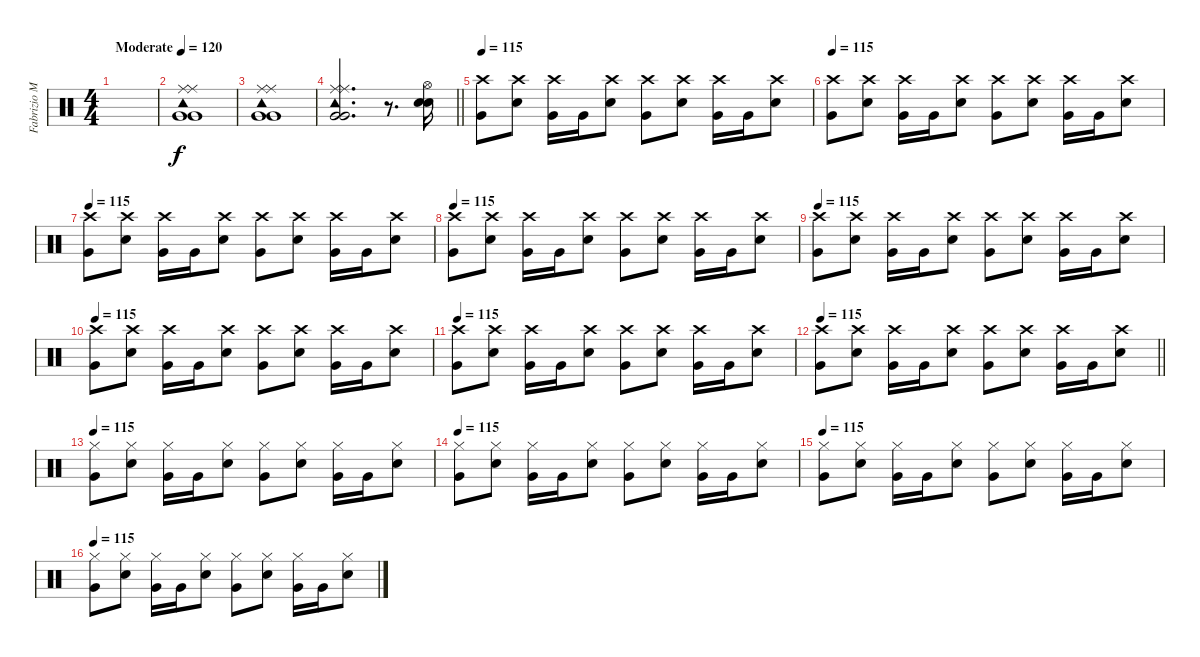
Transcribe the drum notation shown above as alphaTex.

\track ("Fabrizio Moretti" "Fabrizio M") {instrument percussion}
\staff {score}
\articulation defaults
\ts (4 4)
\tempo (120 "Moderate")
\clef neutral
\ks c
|
("Tambourine (hit)" "Ride (middle)" "Ride (middle)" "Very Low Tom (hit)" "Very Low Tom (hit)").1 |
("Tambourine (hit)" "Ride (middle)" "Ride (middle)" "Very Low Tom (hit)" "Very Low Tom (hit)").1 |
\barLineRight lightlight
("Tambourine (hit)" "Ride (middle)" "Ride (middle)" "Very Low Tom (hit)" "Very Low Tom (hit)").2{d} r.8{d} ("Hi-Hat (open)" "Snare (hit) 2" "Snare (hit) 2").16 |
\tempo 115
("Very Low Tom (hit)" "Crash high (hit)").8 ("Electric Snare (hit)" "Crash high (hit)").8 ("Very Low Tom (hit)" "Crash high (hit)").16 "Very Low Tom (hit)".16 ("Electric Snare (hit)" "Crash high (hit)").8 ("Very Low Tom (hit)" "Crash high (hit)").8 ("Electric Snare (hit)" "Crash high (hit)").8 ("Very Low Tom (hit)" "Crash high (hit)").16 "Very Low Tom (hit)".16 ("Electric Snare (hit)" "Crash high (hit)").8 |
\tempo 115
("Very Low Tom (hit)" "Crash high (hit)").8 ("Electric Snare (hit)" "Crash high (hit)").8 ("Very Low Tom (hit)" "Crash high (hit)").16 "Very Low Tom (hit)".16 ("Electric Snare (hit)" "Crash high (hit)").8 ("Very Low Tom (hit)" "Crash high (hit)").8 ("Electric Snare (hit)" "Crash high (hit)").8 ("Very Low Tom (hit)" "Crash high (hit)").16 "Very Low Tom (hit)".16 ("Electric Snare (hit)" "Crash high (hit)").8 |
\tempo 115
("Very Low Tom (hit)" "Crash high (hit)").8 ("Electric Snare (hit)" "Crash high (hit)").8 ("Very Low Tom (hit)" "Crash high (hit)").16 "Very Low Tom (hit)".16 ("Electric Snare (hit)" "Crash high (hit)").8 ("Very Low Tom (hit)" "Crash high (hit)").8 ("Electric Snare (hit)" "Crash high (hit)").8 ("Very Low Tom (hit)" "Crash high (hit)").16 "Very Low Tom (hit)".16 ("Electric Snare (hit)" "Crash high (hit)").8 |
\tempo 115
("Very Low Tom (hit)" "Crash high (hit)").8 ("Electric Snare (hit)" "Crash high (hit)").8 ("Very Low Tom (hit)" "Crash high (hit)").16 "Very Low Tom (hit)".16 ("Electric Snare (hit)" "Crash high (hit)").8 ("Very Low Tom (hit)" "Crash high (hit)").8 ("Electric Snare (hit)" "Crash high (hit)").8 ("Very Low Tom (hit)" "Crash high (hit)").16 "Very Low Tom (hit)".16 ("Electric Snare (hit)" "Crash high (hit)").8 |
\tempo 115
("Very Low Tom (hit)" "Crash high (hit)").8 ("Electric Snare (hit)" "Crash high (hit)").8 ("Very Low Tom (hit)" "Crash high (hit)").16 "Very Low Tom (hit)".16 ("Electric Snare (hit)" "Crash high (hit)").8 ("Very Low Tom (hit)" "Crash high (hit)").8 ("Electric Snare (hit)" "Crash high (hit)").8 ("Very Low Tom (hit)" "Crash high (hit)").16 "Very Low Tom (hit)".16 ("Electric Snare (hit)" "Crash high (hit)").8 |
\tempo 115
("Very Low Tom (hit)" "Crash high (hit)").8 ("Electric Snare (hit)" "Crash high (hit)").8 ("Very Low Tom (hit)" "Crash high (hit)").16 "Very Low Tom (hit)".16 ("Electric Snare (hit)" "Crash high (hit)").8 ("Very Low Tom (hit)" "Crash high (hit)").8 ("Electric Snare (hit)" "Crash high (hit)").8 ("Very Low Tom (hit)" "Crash high (hit)").16 "Very Low Tom (hit)".16 ("Electric Snare (hit)" "Crash high (hit)").8 |
\tempo 115
("Very Low Tom (hit)" "Crash high (hit)").8 ("Electric Snare (hit)" "Crash high (hit)").8 ("Very Low Tom (hit)" "Crash high (hit)").16 "Very Low Tom (hit)".16 ("Electric Snare (hit)" "Crash high (hit)").8 ("Very Low Tom (hit)" "Crash high (hit)").8 ("Electric Snare (hit)" "Crash high (hit)").8 ("Very Low Tom (hit)" "Crash high (hit)").16 "Very Low Tom (hit)".16 ("Electric Snare (hit)" "Crash high (hit)").8 |
\tempo 115
\barLineRight lightlight
("Very Low Tom (hit)" "Crash high (hit)").8 ("Electric Snare (hit)" "Crash high (hit)").8 ("Very Low Tom (hit)" "Crash high (hit)").16 "Very Low Tom (hit)".16 ("Electric Snare (hit)" "Crash high (hit)").8 ("Very Low Tom (hit)" "Crash high (hit)").8 ("Electric Snare (hit)" "Crash high (hit)").8 ("Very Low Tom (hit)" "Crash high (hit)").16 "Very Low Tom (hit)".16 ("Electric Snare (hit)" "Crash high (hit)").8 |
\tempo 115
("Very Low Tom (hit)" "Hi-Hat (closed)").8 ("Electric Snare (hit)" "Hi-Hat (closed)").8 ("Very Low Tom (hit)" "Hi-Hat (closed)").16 "Very Low Tom (hit)".16 ("Electric Snare (hit)" "Hi-Hat (closed)").8 ("Very Low Tom (hit)" "Hi-Hat (closed)").8 ("Electric Snare (hit)" "Hi-Hat (closed)").8 ("Very Low Tom (hit)" "Hi-Hat (closed)").16 "Very Low Tom (hit)".16 ("Electric Snare (hit)" "Hi-Hat (closed)").8 |
\tempo 115
("Very Low Tom (hit)" "Hi-Hat (closed)").8 ("Electric Snare (hit)" "Hi-Hat (closed)").8 ("Very Low Tom (hit)" "Hi-Hat (closed)").16 "Very Low Tom (hit)".16 ("Electric Snare (hit)" "Hi-Hat (closed)").8 ("Very Low Tom (hit)" "Hi-Hat (closed)").8 ("Electric Snare (hit)" "Hi-Hat (closed)").8 ("Very Low Tom (hit)" "Hi-Hat (closed)").16 "Very Low Tom (hit)".16 ("Electric Snare (hit)" "Hi-Hat (closed)").8 |
\tempo 115
("Very Low Tom (hit)" "Hi-Hat (closed)").8 ("Electric Snare (hit)" "Hi-Hat (closed)").8 ("Very Low Tom (hit)" "Hi-Hat (closed)").16 "Very Low Tom (hit)".16 ("Electric Snare (hit)" "Hi-Hat (closed)").8 ("Very Low Tom (hit)" "Hi-Hat (closed)").8 ("Electric Snare (hit)" "Hi-Hat (closed)").8 ("Very Low Tom (hit)" "Hi-Hat (closed)").16 "Very Low Tom (hit)".16 ("Electric Snare (hit)" "Hi-Hat (closed)").8 |
\tempo 115
("Very Low Tom (hit)" "Hi-Hat (closed)").8 ("Electric Snare (hit)" "Hi-Hat (closed)").8 ("Very Low Tom (hit)" "Hi-Hat (closed)").16 "Very Low Tom (hit)".16 ("Electric Snare (hit)" "Hi-Hat (closed)").8 ("Very Low Tom (hit)" "Hi-Hat (closed)").8 ("Electric Snare (hit)" "Hi-Hat (closed)").8 ("Very Low Tom (hit)" "Hi-Hat (closed)").16 "Very Low Tom (hit)".16 ("Electric Snare (hit)" "Hi-Hat (closed)").8
